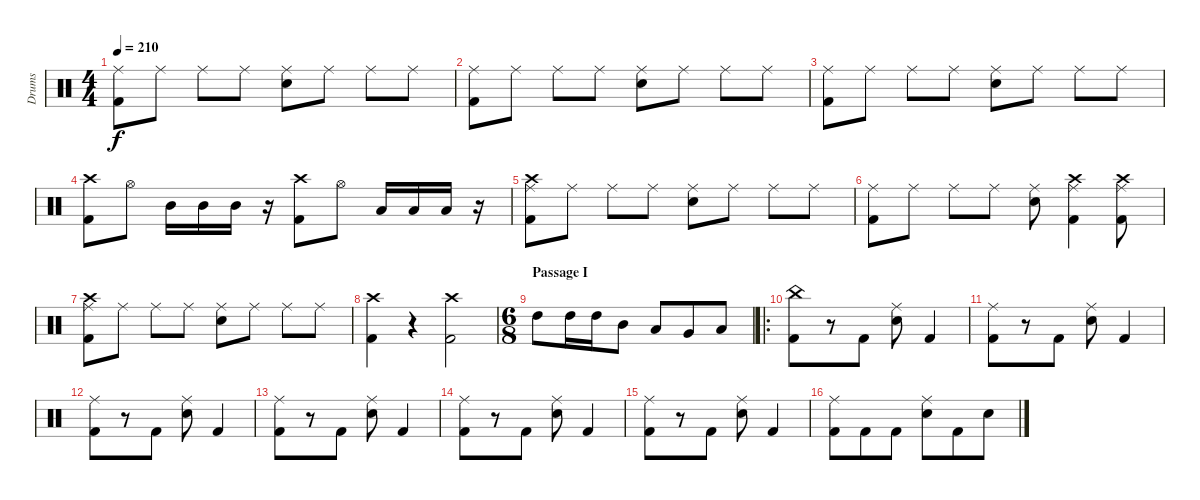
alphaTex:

\track ("Drums" "Drums") {instrument percussion}
\staff {score}
\articulation defaults
\ts (4 4)
\tempo 210
\clef neutral
\ks c
("Ride (middle)" "Kick (hit) 2").8{dy f} "Ride (middle)".8 "Ride (middle)".8 "Ride (middle)".8 ("Ride (middle)" "Electric Snare (hit)").8 "Ride (middle)".8 "Ride (middle)".8 "Ride (middle)".8 |
("Ride (middle)" "Kick (hit) 2").8 "Ride (middle)".8 "Ride (middle)".8 "Ride (middle)".8 ("Ride (middle)" "Electric Snare (hit)").8 "Ride (middle)".8 "Ride (middle)".8 "Ride (middle)".8 |
("Ride (middle)" "Kick (hit) 2").8 "Ride (middle)".8 "Ride (middle)".8 "Ride (middle)".8 ("Ride (middle)" "Electric Snare (hit)").8 "Ride (middle)".8 "Ride (middle)".8 "Ride (middle)".8 |
("Crash high (hit)" "Kick (hit) 2").8 "Hi-Hat (open)".8 "Mid Tom (hit)".16 "Mid Tom (hit)".16 "Mid Tom (hit)".16 r.16 ("Crash high (hit)" "Kick (hit) 2").8 "Hi-Hat (open)".8 "Low Tom (hit)".16 "Low Tom (hit)".16 "Low Floor Tom (hit)".16 r.16 |
("Crash high (hit)" "Ride (middle)" "Kick (hit) 2").8 "Ride (middle)".8 "Ride (middle)".8 "Ride (middle)".8 ("Ride (middle)" "Electric Snare (hit)").8 "Ride (middle)".8 "Ride (middle)".8 "Ride (middle)".8 |
("Ride (middle)" "Kick (hit) 2").8 "Ride (middle)".8 "Ride (middle)".8 "Ride (middle)".8 ("Ride (middle)" "Electric Snare (hit)").8 ("Crash high (hit)" "Ride (middle)" "Kick (hit) 2").4 ("Crash high (hit)" "Ride (middle)" "Kick (hit) 2").8 |
("Crash high (hit)" "Ride (middle)" "Kick (hit) 2").8 "Ride (middle)".8 "Ride (middle)".8 "Ride (middle)".8 ("Ride (middle)" "Electric Snare (hit)").8 "Ride (middle)".8 "Ride (middle)".8 "Ride (middle)".8 |
("Crash high (hit)" "Kick (hit) 2").4 r.4 ("Crash high (hit)" "Kick (hit) 2").2 |
\ts (6 8)
\section ("" "Passage I")
"High Tom (hit)".8 "High Tom (hit)".16 "High Tom (hit)".16 "Mid Tom (hit)".8 "Low Tom (hit)".8 "Very Low Tom (hit)".8 "Low Floor Tom (hit)".8 |
\ro
("China (hit)" "Kick (hit) 2").8 r.8 "Kick (hit) 2".8 ("Ride (middle)" "Electric Snare (hit)").8 "Kick (hit) 2".4 |
("Ride (middle)" "Kick (hit) 2").8 r.8 "Kick (hit) 2".8 ("Ride (middle)" "Electric Snare (hit)").8 "Kick (hit) 2".4 |
("Ride (middle)" "Kick (hit) 2").8 r.8 "Kick (hit) 2".8 ("Ride (middle)" "Electric Snare (hit)").8 "Kick (hit) 2".4 |
("Ride (middle)" "Kick (hit) 2").8 r.8 "Kick (hit) 2".8 ("Ride (middle)" "Electric Snare (hit)").8 "Kick (hit) 2".4 |
("Ride (middle)" "Kick (hit) 2").8 r.8 "Kick (hit) 2".8 ("Ride (middle)" "Electric Snare (hit)").8 "Kick (hit) 2".4 |
("Ride (middle)" "Kick (hit) 2").8 r.8 "Kick (hit) 2".8 ("Ride (middle)" "Electric Snare (hit)").8 "Kick (hit) 2".4 |
("Ride (middle)" "Kick (hit) 2").8 "Kick (hit) 2".8 "Kick (hit) 2".8 ("Ride (middle)" "Electric Snare (hit)").8 "Kick (hit) 2".8 "Electric Snare (hit)".8
